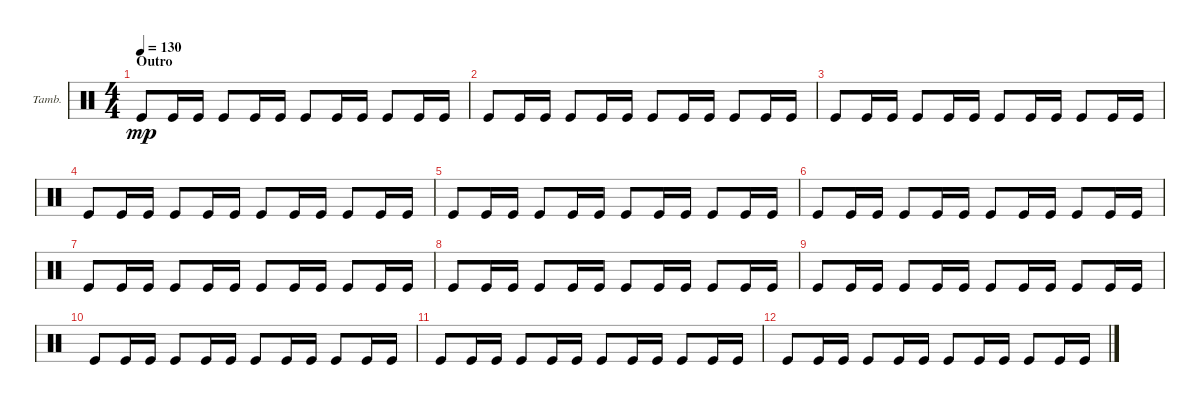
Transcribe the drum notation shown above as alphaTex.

\bracketExtendMode groupsimilarinstruments
\firstSystemTrackNameOrientation horizontal
\otherSystemsTrackNameOrientation horizontal
\track ("Tambourine" "Tamb.") {instrument percussion}
\staff {score}
\articulation defaults
\ts (4 4)
\section ("" "Outro")
\tempo 130
\clef neutral
\ks c "Kick (hit)".8{dy mp} "Kick (hit)".16 "Kick (hit)".16 "Kick (hit)".8 "Kick (hit)".16 "Kick (hit)".16 "Kick (hit)".8 "Kick (hit)".16 "Kick (hit)".16 "Kick (hit)".8 "Kick (hit)".16 "Kick (hit)".16
|
"Kick (hit)".8 "Kick (hit)".16 "Kick (hit)".16 "Kick (hit)".8 "Kick (hit)".16 "Kick (hit)".16 "Kick (hit)".8 "Kick (hit)".16 "Kick (hit)".16 "Kick (hit)".8 "Kick (hit)".16 "Kick (hit)".16 |
"Kick (hit)".8 "Kick (hit)".16 "Kick (hit)".16 "Kick (hit)".8 "Kick (hit)".16 "Kick (hit)".16 "Kick (hit)".8 "Kick (hit)".16 "Kick (hit)".16 "Kick (hit)".8 "Kick (hit)".16 "Kick (hit)".16 |
"Kick (hit)".8 "Kick (hit)".16 "Kick (hit)".16 "Kick (hit)".8 "Kick (hit)".16 "Kick (hit)".16 "Kick (hit)".8 "Kick (hit)".16 "Kick (hit)".16 "Kick (hit)".8 "Kick (hit)".16 "Kick (hit)".16 |
"Kick (hit)".8 "Kick (hit)".16 "Kick (hit)".16 "Kick (hit)".8 "Kick (hit)".16 "Kick (hit)".16 "Kick (hit)".8 "Kick (hit)".16 "Kick (hit)".16 "Kick (hit)".8 "Kick (hit)".16 "Kick (hit)".16 |
"Kick (hit)".8 "Kick (hit)".16 "Kick (hit)".16 "Kick (hit)".8 "Kick (hit)".16 "Kick (hit)".16 "Kick (hit)".8 "Kick (hit)".16 "Kick (hit)".16 "Kick (hit)".8 "Kick (hit)".16 "Kick (hit)".16 |
"Kick (hit)".8 "Kick (hit)".16 "Kick (hit)".16 "Kick (hit)".8 "Kick (hit)".16 "Kick (hit)".16 "Kick (hit)".8 "Kick (hit)".16 "Kick (hit)".16 "Kick (hit)".8 "Kick (hit)".16 "Kick (hit)".16 |
"Kick (hit)".8 "Kick (hit)".16 "Kick (hit)".16 "Kick (hit)".8 "Kick (hit)".16 "Kick (hit)".16 "Kick (hit)".8 "Kick (hit)".16 "Kick (hit)".16 "Kick (hit)".8 "Kick (hit)".16 "Kick (hit)".16 |
"Kick (hit)".8 "Kick (hit)".16 "Kick (hit)".16 "Kick (hit)".8 "Kick (hit)".16 "Kick (hit)".16 "Kick (hit)".8 "Kick (hit)".16 "Kick (hit)".16 "Kick (hit)".8 "Kick (hit)".16 "Kick (hit)".16 |
"Kick (hit)".8 "Kick (hit)".16 "Kick (hit)".16 "Kick (hit)".8 "Kick (hit)".16 "Kick (hit)".16 "Kick (hit)".8 "Kick (hit)".16 "Kick (hit)".16 "Kick (hit)".8 "Kick (hit)".16 "Kick (hit)".16 |
"Kick (hit)".8 "Kick (hit)".16 "Kick (hit)".16 "Kick (hit)".8 "Kick (hit)".16 "Kick (hit)".16 "Kick (hit)".8 "Kick (hit)".16 "Kick (hit)".16 "Kick (hit)".8 "Kick (hit)".16 "Kick (hit)".16 |
"Kick (hit)".8 "Kick (hit)".16 "Kick (hit)".16 "Kick (hit)".8 "Kick (hit)".16 "Kick (hit)".16 "Kick (hit)".8 "Kick (hit)".16 "Kick (hit)".16 "Kick (hit)".8 "Kick (hit)".16 "Kick (hit)".16
